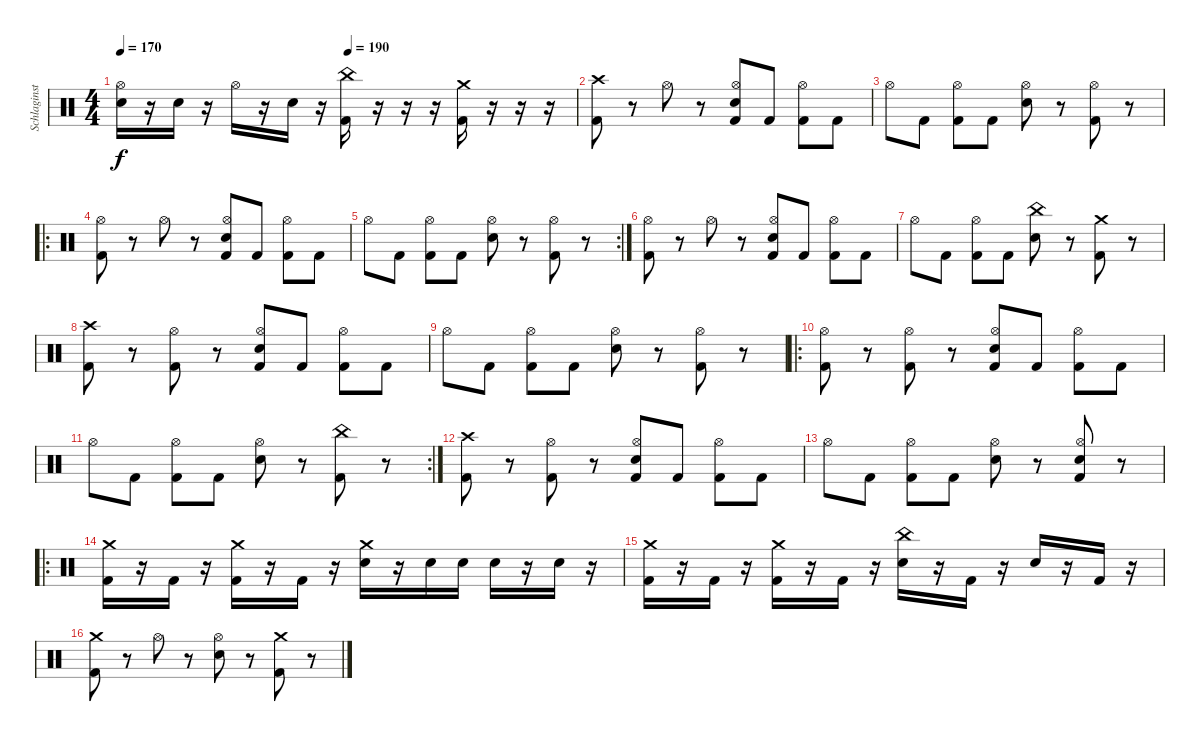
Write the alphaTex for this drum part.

\track ("Schlaginstrumente - Auswahl" "Schlaginst") {instrument percussion}
\staff {score}
\articulation defaults
\ts (4 4)
\tempo 170
\tempo (190 0.5)
\clef neutral
\ks c
("Electric Snare (hit)" "Hi-Hat (open)").16{dy f} r.16 "Electric Snare (hit)".16 r.16 "Hi-Hat (open)".16 r.16 "Electric Snare (hit)".16 r.16 ("Kick (hit) 2" "China (hit)").16 r.16 r.16 r.16 ("Kick (hit) 2" "Crash medium (hit)").16 r.16 r.16 r.16 |
("Kick (hit) 2" "Crash high (hit)").8 r.8 "Hi-Hat (open)".8 r.8 ("Kick (hit) 2" "Electric Snare (hit)" "Hi-Hat (open)").8 "Kick (hit) 2".8 ("Kick (hit) 2" "Hi-Hat (open)").8 "Kick (hit) 2".8 |
"Hi-Hat (open)".8 "Kick (hit) 2".8 ("Kick (hit) 2" "Hi-Hat (open)").8 "Kick (hit) 2".8 ("Electric Snare (hit)" "Hi-Hat (open)").8 r.8 ("Kick (hit) 2" "Hi-Hat (open)").8 r.8 |
\ro
("Kick (hit) 2" "Hi-Hat (open)").8 r.8 "Hi-Hat (open)".8 r.8 ("Kick (hit) 2" "Electric Snare (hit)" "Hi-Hat (open)").8 "Kick (hit) 2".8 ("Kick (hit) 2" "Hi-Hat (open)").8 "Kick (hit) 2".8 |
\rc 2 "Hi-Hat (open)".8 "Kick (hit) 2".8
("Kick (hit) 2" "Hi-Hat (open)").8 "Kick (hit) 2".8 ("Electric Snare (hit)" "Hi-Hat (open)").8 r.8 ("Kick (hit) 2" "Hi-Hat (open)").8 r.8 |
("Kick (hit) 2" "Hi-Hat (open)").8 r.8 "Hi-Hat (open)".8 r.8 ("Kick (hit) 2" "Electric Snare (hit)" "Hi-Hat (open)").8 "Kick (hit) 2".8 ("Kick (hit) 2" "Hi-Hat (open)").8 "Kick (hit) 2".8 |
"Hi-Hat (open)".8 "Kick (hit) 2".8 ("Kick (hit) 2" "Hi-Hat (open)").8 "Kick (hit) 2".8 ("Electric Snare (hit)" "China (hit)").8 r.8 ("Kick (hit) 2" "Crash medium (hit)").8 r.8 |
("Kick (hit) 2" "Crash high (hit)").8 r.8 ("Kick (hit) 2" "Hi-Hat (open)").8 r.8 ("Kick (hit) 2" "Electric Snare (hit)" "Hi-Hat (open)").8 "Kick (hit) 2".8 ("Kick (hit) 2" "Hi-Hat (open)").8 "Kick (hit) 2".8 |
"Hi-Hat (open)".8 "Kick (hit) 2".8 ("Kick (hit) 2" "Hi-Hat (open)").8 "Kick (hit) 2".8 ("Electric Snare (hit)" "Hi-Hat (open)").8 r.8 ("Kick (hit) 2" "Hi-Hat (open)").8 r.8 |
\ro
("Kick (hit) 2" "Hi-Hat (open)").8 r.8 ("Kick (hit) 2" "Hi-Hat (open)").8 r.8 ("Kick (hit) 2" "Electric Snare (hit)" "Hi-Hat (open)").8 "Kick (hit) 2".8 ("Kick (hit) 2" "Hi-Hat (open)").8 "Kick (hit) 2".8 |
\rc 2 "Hi-Hat (open)".8 "Kick (hit) 2".8
("Kick (hit) 2" "Hi-Hat (open)").8 "Kick (hit) 2".8 ("Electric Snare (hit)" "Hi-Hat (open)").8 r.8 ("Kick (hit) 2" "China (hit)").8 r.8 |
("Kick (hit) 2" "Crash high (hit)").8 r.8 ("Kick (hit) 2" "Hi-Hat (open)").8 r.8 ("Kick (hit) 2" "Electric Snare (hit)" "Hi-Hat (open)").8 "Kick (hit) 2".8 ("Kick (hit) 2" "Hi-Hat (open)").8 "Kick (hit) 2".8 |
"Hi-Hat (open)".8 "Kick (hit) 2".8 ("Kick (hit) 2" "Hi-Hat (open)").8 "Kick (hit) 2".8 ("Electric Snare (hit)" "Hi-Hat (open)").8 r.8 ("Kick (hit) 2" "Electric Snare (hit)" "Hi-Hat (open)").8 r.8 |
\ro
("Kick (hit) 2" "Crash medium (hit)").16 r.16 "Kick (hit) 2".16 r.16 ("Kick (hit) 2" "Crash medium (hit)").16 r.16 "Kick (hit) 2".16 r.16 ("Electric Snare (hit)" "Crash medium (hit)").16 r.16 "Electric Snare (hit)".16 "Electric Snare (hit)".16 "Electric Snare (hit)".16 r.16 "Electric Snare (hit)".16 r.16 |
("Kick (hit) 2" "Crash medium (hit)").16 r.16 "Kick (hit) 2".16 r.16 ("Kick (hit) 2" "Crash medium (hit)").16 r.16 "Kick (hit) 2".16 r.16 ("Electric Snare (hit)" "China (hit)").16 r.16 "Kick (hit) 2".16 r.16 "Electric Snare (hit)".16 r.16 "Kick (hit) 2".16 r.16 |
("Kick (hit) 2" "Crash medium (hit)").8 r.8 "Hi-Hat (open)".8 r.8 ("Electric Snare (hit)" "Hi-Hat (open)").8 r.8 ("Kick (hit) 2" "Crash medium (hit)").8 r.8
